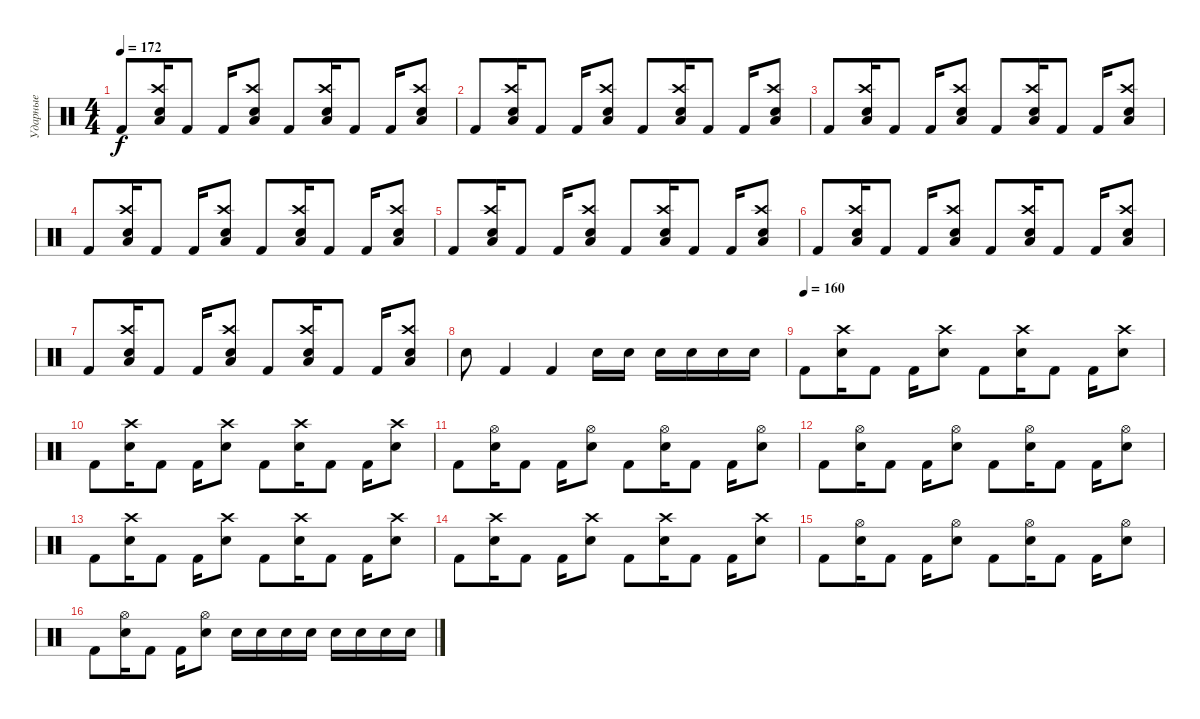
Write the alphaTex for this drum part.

\track ("Ударные" "Ударные") {instrument percussion}
\staff {score}
\articulation defaults
\ts (4 4)
\tempo 172
\clef neutral
\ks c "Kick (hit) 2".8{dy f}
("Low Floor Tom (hit)" "Crash high (hit)" "Electric Snare (hit)").16 "Kick (hit) 2".8 "Kick (hit) 2".16 ("Low Floor Tom (hit)" "Crash high (hit)" "Electric Snare (hit)").8 "Kick (hit) 2".8 ("Low Floor Tom (hit)" "Crash high (hit)" "Electric Snare (hit)").16 "Kick (hit) 2".8 "Kick (hit) 2".16 ("Low Floor Tom (hit)" "Crash high (hit)" "Electric Snare (hit)").8 |
"Kick (hit) 2".8 ("Low Floor Tom (hit)" "Crash high (hit)" "Electric Snare (hit)").16 "Kick (hit) 2".8 "Kick (hit) 2".16 ("Low Floor Tom (hit)" "Crash high (hit)" "Electric Snare (hit)").8 "Kick (hit) 2".8 ("Low Floor Tom (hit)" "Crash high (hit)" "Electric Snare (hit)").16 "Kick (hit) 2".8 "Kick (hit) 2".16 ("Low Floor Tom (hit)" "Crash high (hit)" "Electric Snare (hit)").8 |
"Kick (hit) 2".8 ("Low Floor Tom (hit)" "Crash high (hit)" "Electric Snare (hit)").16 "Kick (hit) 2".8 "Kick (hit) 2".16 ("Low Floor Tom (hit)" "Crash high (hit)" "Electric Snare (hit)").8 "Kick (hit) 2".8 ("Low Floor Tom (hit)" "Crash high (hit)" "Electric Snare (hit)").16 "Kick (hit) 2".8 "Kick (hit) 2".16 ("Low Floor Tom (hit)" "Crash high (hit)" "Electric Snare (hit)").8 |
"Kick (hit) 2".8 ("Low Floor Tom (hit)" "Crash high (hit)" "Electric Snare (hit)").16 "Kick (hit) 2".8 "Kick (hit) 2".16 ("Low Floor Tom (hit)" "Crash high (hit)" "Electric Snare (hit)").8 "Kick (hit) 2".8 ("Low Floor Tom (hit)" "Crash high (hit)" "Electric Snare (hit)").16 "Kick (hit) 2".8 "Kick (hit) 2".16 ("Low Floor Tom (hit)" "Crash high (hit)" "Electric Snare (hit)").8 |
"Kick (hit) 2".8 ("Low Floor Tom (hit)" "Crash high (hit)" "Electric Snare (hit)").16 "Kick (hit) 2".8 "Kick (hit) 2".16 ("Low Floor Tom (hit)" "Crash high (hit)" "Electric Snare (hit)").8 "Kick (hit) 2".8 ("Low Floor Tom (hit)" "Crash high (hit)" "Electric Snare (hit)").16 "Kick (hit) 2".8 "Kick (hit) 2".16 ("Low Floor Tom (hit)" "Crash high (hit)" "Electric Snare (hit)").8 |
"Kick (hit) 2".8 ("Low Floor Tom (hit)" "Crash high (hit)" "Electric Snare (hit)").16 "Kick (hit) 2".8 "Kick (hit) 2".16 ("Low Floor Tom (hit)" "Crash high (hit)" "Electric Snare (hit)").8 "Kick (hit) 2".8 ("Low Floor Tom (hit)" "Crash high (hit)" "Electric Snare (hit)").16 "Kick (hit) 2".8 "Kick (hit) 2".16 ("Low Floor Tom (hit)" "Crash high (hit)" "Electric Snare (hit)").8 |
"Kick (hit) 2".8 ("Low Floor Tom (hit)" "Crash high (hit)" "Electric Snare (hit)").16 "Kick (hit) 2".8 "Kick (hit) 2".16 ("Low Floor Tom (hit)" "Crash high (hit)" "Electric Snare (hit)").8 "Kick (hit) 2".8 ("Low Floor Tom (hit)" "Crash high (hit)" "Electric Snare (hit)").16 "Kick (hit) 2".8 "Kick (hit) 2".16 ("Low Floor Tom (hit)" "Crash high (hit)" "Electric Snare (hit)").8 |
"Electric Snare (hit)".8 "Kick (hit) 2".4 "Kick (hit) 2".4 "Electric Snare (hit)".16 "Electric Snare (hit)".16 "Electric Snare (hit)".16 "Electric Snare (hit)".16 "Electric Snare (hit)".16 "Electric Snare (hit)".16 |
\tempo (160)
"Kick (hit) 2".8 ("Crash high (hit)" "Electric Snare (hit)").16 "Kick (hit) 2".8 "Kick (hit) 2".16 ("Crash high (hit)" "Electric Snare (hit)").8 "Kick (hit) 2".8 ("Crash high (hit)" "Electric Snare (hit)").16 "Kick (hit) 2".8 "Kick (hit) 2".16 ("Crash high (hit)" "Electric Snare (hit)").8 |
"Kick (hit) 2".8 ("Crash high (hit)" "Electric Snare (hit)").16 "Kick (hit) 2".8 "Kick (hit) 2".16 ("Crash high (hit)" "Electric Snare (hit)").8 "Kick (hit) 2".8 ("Crash high (hit)" "Electric Snare (hit)").16 "Kick (hit) 2".8 "Kick (hit) 2".16 ("Crash high (hit)" "Electric Snare (hit)").8 |
"Kick (hit) 2".8 ("Hi-Hat (open)" "Electric Snare (hit)").16 "Kick (hit) 2".8 "Kick (hit) 2".16 ("Hi-Hat (open)" "Electric Snare (hit)").8 "Kick (hit) 2".8 ("Hi-Hat (open)" "Electric Snare (hit)").16 "Kick (hit) 2".8 "Kick (hit) 2".16 ("Hi-Hat (open)" "Electric Snare (hit)").8 |
"Kick (hit) 2".8 ("Hi-Hat (open)" "Electric Snare (hit)").16 "Kick (hit) 2".8 "Kick (hit) 2".16 ("Hi-Hat (open)" "Electric Snare (hit)").8 "Kick (hit) 2".8 ("Hi-Hat (open)" "Electric Snare (hit)").16 "Kick (hit) 2".8 "Kick (hit) 2".16 ("Hi-Hat (open)" "Electric Snare (hit)").8 |
"Kick (hit) 2".8 ("Crash high (hit)" "Electric Snare (hit)").16 "Kick (hit) 2".8 "Kick (hit) 2".16 ("Crash high (hit)" "Electric Snare (hit)").8 "Kick (hit) 2".8 ("Crash high (hit)" "Electric Snare (hit)").16 "Kick (hit) 2".8 "Kick (hit) 2".16 ("Crash high (hit)" "Electric Snare (hit)").8 |
"Kick (hit) 2".8 ("Crash high (hit)" "Electric Snare (hit)").16 "Kick (hit) 2".8 "Kick (hit) 2".16 ("Crash high (hit)" "Electric Snare (hit)").8 "Kick (hit) 2".8 ("Crash high (hit)" "Electric Snare (hit)").16 "Kick (hit) 2".8 "Kick (hit) 2".16 ("Crash high (hit)" "Electric Snare (hit)").8 |
"Kick (hit) 2".8 ("Hi-Hat (open)" "Electric Snare (hit)").16 "Kick (hit) 2".8 "Kick (hit) 2".16 ("Hi-Hat (open)" "Electric Snare (hit)").8 "Kick (hit) 2".8 ("Hi-Hat (open)" "Electric Snare (hit)").16 "Kick (hit) 2".8 "Kick (hit) 2".16 ("Hi-Hat (open)" "Electric Snare (hit)").8 |
"Kick (hit) 2".8 ("Hi-Hat (open)" "Electric Snare (hit)").16 "Kick (hit) 2".8 "Kick (hit) 2".16 ("Hi-Hat (open)" "Electric Snare (hit)").8 "Electric Snare (hit)".16 "Electric Snare (hit)".16 "Electric Snare (hit)".16 "Electric Snare (hit)".16 "Electric Snare (hit)".16 "Electric Snare (hit)".16 "Electric Snare (hit)".16 "Electric Snare (hit)".16
